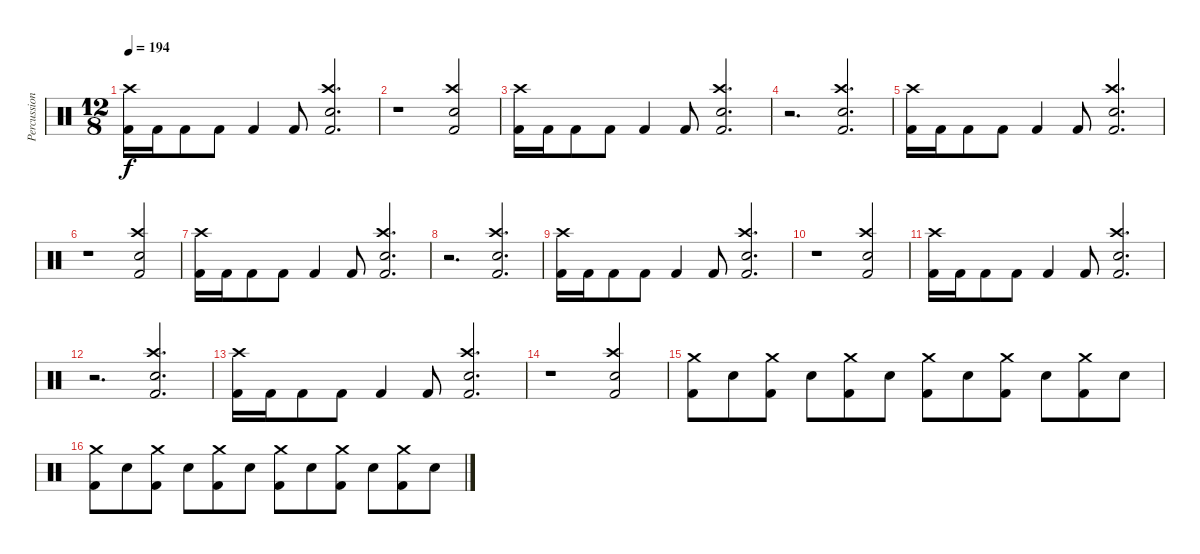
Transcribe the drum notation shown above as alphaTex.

\track ("Percussion" "Percussion") {instrument percussion}
\staff {score}
\articulation defaults
\ts (12 8)
\tempo 194
\clef neutral
\ks c
("Kick (hit) 2" "Crash high (hit)").16{dy f} "Kick (hit) 2".16 "Kick (hit) 2".8 "Kick (hit) 2".8 "Kick (hit) 2".4 "Kick (hit) 2".8 ("Snare (hit) 2" "Kick (hit) 2" "Crash high (hit)").2{d} |
r.1 ("Snare (hit) 2" "Kick (hit) 2" "Crash high (hit)").2 |
("Kick (hit) 2" "Crash high (hit)").16 "Kick (hit) 2".16 "Kick (hit) 2".8 "Kick (hit) 2".8 "Kick (hit) 2".4 "Kick (hit) 2".8 ("Snare (hit) 2" "Kick (hit) 2" "Crash high (hit)").2{d} |
r.2{d} ("Snare (hit) 2" "Kick (hit) 2" "Crash high (hit)").2{d} |
("Kick (hit) 2" "Crash high (hit)").16 "Kick (hit) 2".16 "Kick (hit) 2".8 "Kick (hit) 2".8 "Kick (hit) 2".4 "Kick (hit) 2".8 ("Snare (hit) 2" "Kick (hit) 2" "Crash high (hit)").2{d} |
r.1 ("Snare (hit) 2" "Kick (hit) 2" "Crash high (hit)").2 |
("Kick (hit) 2" "Crash high (hit)").16 "Kick (hit) 2".16 "Kick (hit) 2".8 "Kick (hit) 2".8 "Kick (hit) 2".4 "Kick (hit) 2".8 ("Snare (hit) 2" "Kick (hit) 2" "Crash high (hit)").2{d} |
r.2{d} ("Snare (hit) 2" "Kick (hit) 2" "Crash high (hit)").2{d} |
("Kick (hit) 2" "Crash high (hit)").16 "Kick (hit) 2".16 "Kick (hit) 2".8 "Kick (hit) 2".8 "Kick (hit) 2".4 "Kick (hit) 2".8 ("Snare (hit) 2" "Kick (hit) 2" "Crash high (hit)").2{d} |
r.1 ("Snare (hit) 2" "Kick (hit) 2" "Crash high (hit)").2 |
("Kick (hit) 2" "Crash high (hit)").16 "Kick (hit) 2".16 "Kick (hit) 2".8 "Kick (hit) 2".8 "Kick (hit) 2".4 "Kick (hit) 2".8 ("Snare (hit) 2" "Kick (hit) 2" "Crash high (hit)").2{d} |
r.2{d} ("Snare (hit) 2" "Kick (hit) 2" "Crash high (hit)").2{d} |
("Kick (hit) 2" "Crash high (hit)").16 "Kick (hit) 2".16 "Kick (hit) 2".8 "Kick (hit) 2".8 "Kick (hit) 2".4 "Kick (hit) 2".8 ("Snare (hit) 2" "Kick (hit) 2" "Crash high (hit)").2{d} |
r.1 ("Snare (hit) 2" "Kick (hit) 2" "Crash high (hit)").2 |
("Kick (hit) 2" "Crash medium (hit)").8 "Snare (hit) 2".8 ("Kick (hit) 2" "Crash medium (hit)").8 "Snare (hit) 2".8 ("Kick (hit) 2" "Crash medium (hit)").8 "Snare (hit) 2".8 ("Kick (hit) 2" "Crash medium (hit)").8 "Snare (hit) 2".8 ("Kick (hit) 2" "Crash medium (hit)").8 "Snare (hit) 2".8 ("Kick (hit) 2" "Crash medium (hit)").8 "Snare (hit) 2".8 |
("Kick (hit) 2" "Crash medium (hit)").8 "Snare (hit) 2".8 ("Kick (hit) 2" "Crash medium (hit)").8 "Snare (hit) 2".8 ("Kick (hit) 2" "Crash medium (hit)").8 "Snare (hit) 2".8 ("Kick (hit) 2" "Crash medium (hit)").8 "Snare (hit) 2".8 ("Kick (hit) 2" "Crash medium (hit)").8 "Snare (hit) 2".8 ("Kick (hit) 2" "Crash medium (hit)").8 "Snare (hit) 2".8
